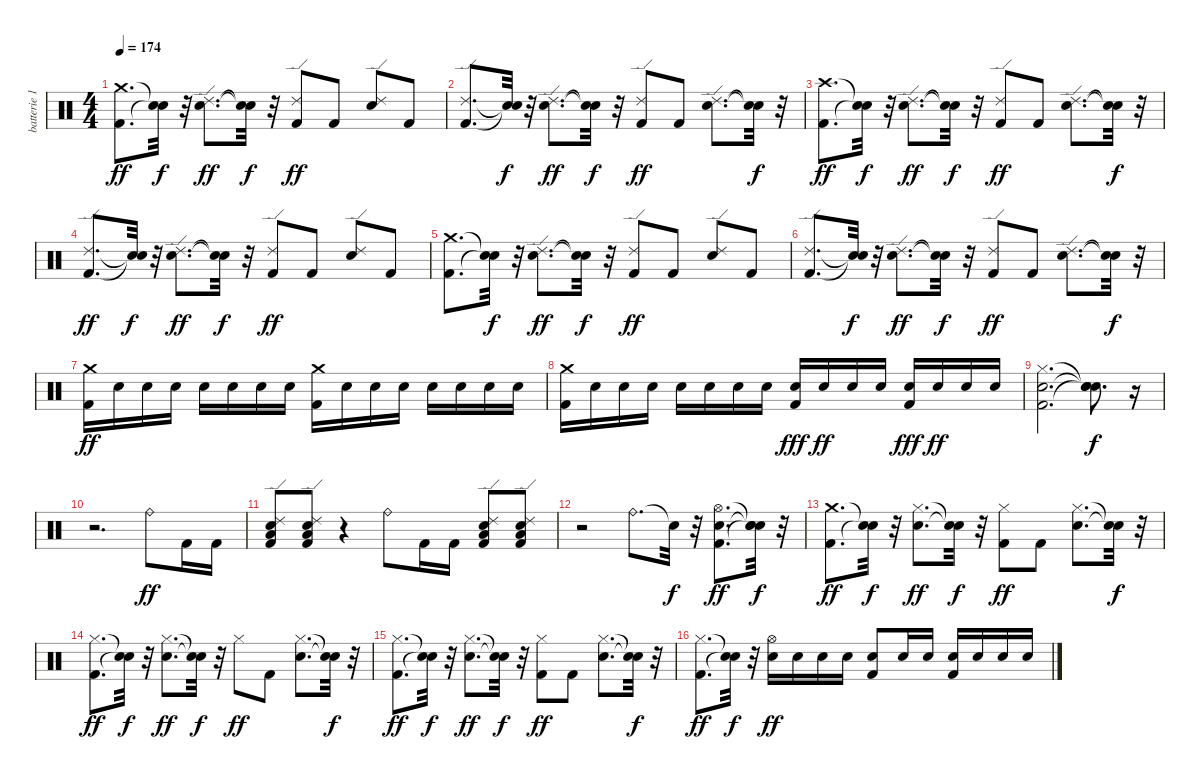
\track ("batterie 1" "batterie 1") {instrument percussion}
\staff {score}
\articulation defaults
\ts (4 4)
\tempo 174
\clef neutral
\ks c
("Kick (hit) 2" "Crash medium (hit)").8{d dy ff} ("Snare (hit)"{t} "Snare (hit)"{t}).32{dy f} r.32 ("Electric Snare (hit)" "Ride (edge) 2").8{d dy ff} ("Snare (hit)"{t} "Snare (hit)"{t}).32{dy f} r.32 ("Kick (hit) 2" "Ride (edge) 2").8{dy ff} "Kick (hit) 2".8 ("Electric Snare (hit)" "Ride (edge) 2").8 "Kick (hit) 2".8 |
("Kick (hit) 2" "Ride (edge) 2").8{d} ("Snare (hit)"{t} "Snare (hit)"{t}).32{dy f} r.32 ("Electric Snare (hit)" "Ride (edge) 2").8{d dy ff} ("Snare (hit)"{t} "Snare (hit)"{t}).32{dy f} r.32 ("Kick (hit) 2" "Ride (edge) 2").8{dy ff} "Kick (hit) 2".8 ("Electric Snare (hit)" "Ride (edge) 2").8{d} ("Snare (hit)"{t} "Snare (hit)"{t}).32{dy f} r.32 |
("Kick (hit) 2" "Crash high (hit)").8{d dy ff} ("Snare (hit)"{t} "Snare (hit)"{t}).32{dy f} r.32 ("Electric Snare (hit)" "Ride (edge) 2").8{d dy ff} ("Snare (hit)"{t} "Snare (hit)"{t}).32{dy f} r.32 ("Kick (hit) 2" "Ride (edge) 2").8{dy ff} "Kick (hit) 2".8 ("Electric Snare (hit)" "Ride (edge) 2").8{d} ("Snare (hit)"{t} "Snare (hit)"{t}).32{dy f} r.32 |
("Kick (hit) 2" "Ride (edge) 2").8{d dy ff} ("Snare (hit)"{t} "Snare (hit)"{t}).32{dy f} r.32 ("Electric Snare (hit)" "Ride (edge) 2").8{d dy ff} ("Snare (hit)"{t} "Snare (hit)"{t}).32{dy f} r.32 ("Kick (hit) 2" "Ride (edge) 2").8{dy ff} "Kick (hit) 2".8 ("Electric Snare (hit)" "Ride (edge) 2").8 "Kick (hit) 2".8 |
("Kick (hit) 2" "Crash medium (hit)").8{d} ("Snare (hit)"{t} "Snare (hit)"{t}).32{dy f} r.32 ("Electric Snare (hit)" "Ride (edge) 2").8{d dy ff} ("Snare (hit)"{t} "Snare (hit)"{t}).32{dy f} r.32 ("Kick (hit) 2" "Ride (edge) 2").8{dy ff} "Kick (hit) 2".8 ("Electric Snare (hit)" "Ride (edge) 2").8 "Kick (hit) 2".8 |
("Kick (hit) 2" "Ride (edge) 2").8{d} ("Snare (hit)"{t} "Snare (hit)"{t}).32{dy f} r.32 ("Electric Snare (hit)" "Ride (edge) 2").8{d dy ff} ("Snare (hit)"{t} "Snare (hit)"{t}).32{dy f} r.32 ("Kick (hit) 2" "Ride (edge) 2").8{dy ff} "Kick (hit) 2".8 ("Electric Snare (hit)" "Ride (edge) 2").8{d} ("Snare (hit)"{t} "Snare (hit)"{t}).32{dy f} r.32 |
("Kick (hit) 2" "Crash medium (hit)").16{dy ff} "Electric Snare (hit)".16 "Electric Snare (hit)".16 "Electric Snare (hit)".16 "Electric Snare (hit)".16 "Electric Snare (hit)".16 "Electric Snare (hit)".16 "Electric Snare (hit)".16 ("Kick (hit) 2" "Crash medium (hit)").16 "Electric Snare (hit)".16 "Electric Snare (hit)".16 "Electric Snare (hit)".16 "Electric Snare (hit)".16 "Electric Snare (hit)".16 "Electric Snare (hit)".16 "Electric Snare (hit)".16 |
("Kick (hit) 2" "Crash medium (hit)").16 "Electric Snare (hit)".16 "Electric Snare (hit)".16 "Electric Snare (hit)".16 "Electric Snare (hit)".16 "Electric Snare (hit)".16 "Electric Snare (hit)".16 "Electric Snare (hit)".16 ("Kick (hit) 2" "Electric Snare (hit)").16{dy fff} "Electric Snare (hit)".16{dy ff} "Electric Snare (hit)".16 "Electric Snare (hit)".16 ("Kick (hit) 2" "Electric Snare (hit)").16{dy fff} "Electric Snare (hit)".16{dy ff} "Electric Snare (hit)".16 "Electric Snare (hit)".16 |
("Kick (hit) 2" "Electric Snare (hit)" "Hi-Hat (closed)").2{d} ("Snare (hit)"{t} "Snare (hit)"{t} "Snare (hit)"{t}).8{d dy f} r.16 |
r.2{d} "Ride (bell)".8{dy ff} "Kick (hit) 2".16 "Kick (hit) 2".16 |
("Kick (hit) 2" "Electric Snare (hit)" "Low Floor Tom (hit)" "Ride (edge) 2").8 ("Kick (hit) 2" "Electric Snare (hit)" "Low Floor Tom (hit)" "Ride (edge) 2").8 r.4 "Ride (bell)".8 "Kick (hit) 2".16 "Kick (hit) 2".16 ("Kick (hit) 2" "Electric Snare (hit)" "Low Floor Tom (hit)" "Ride (edge) 2").8 ("Kick (hit) 2" "Electric Snare (hit)" "Low Floor Tom (hit)" "Ride (edge) 2").8 |
r.2 "Ride (bell)".8{d} "Snare (hit)"{t}.32{dy f} r.32 ("Kick (hit) 2" "Electric Snare (hit)" "Hi-Hat (open)").8{d dy ff} ("Snare (hit)"{t} "Snare (hit)"{t} "Snare (hit)"{t}).32{dy f} r.32 |
("Kick (hit) 2" "Crash medium (hit)").8{d dy ff} ("Snare (hit)"{t} "Snare (hit)"{t}).32{dy f} r.32 ("Electric Snare (hit)" "Hi-Hat (closed)").8{d dy ff} ("Snare (hit)"{t} "Snare (hit)"{t}).32{dy f} r.32 ("Kick (hit) 2" "Hi-Hat (closed)").8{dy ff} "Kick (hit) 2".8 ("Electric Snare (hit)" "Hi-Hat (closed)").8{d} ("Snare (hit)"{t} "Snare (hit)"{t}).32{dy f} r.32 |
("Kick (hit) 2" "Hi-Hat (closed)").8{d dy ff} ("Snare (hit)"{t} "Snare (hit)"{t}).32{dy f} r.32 ("Electric Snare (hit)" "Hi-Hat (closed)").8{d dy ff} ("Snare (hit)"{t} "Snare (hit)"{t}).32{dy f} r.32 "Hi-Hat (closed)".8{dy ff} "Kick (hit) 2".8 ("Electric Snare (hit)" "Hi-Hat (closed)").8{d} ("Snare (hit)"{t} "Snare (hit)"{t}).32{dy f} r.32 |
("Kick (hit) 2" "Hi-Hat (closed)").8{d dy ff} ("Snare (hit)"{t} "Snare (hit)"{t}).32{dy f} r.32 ("Electric Snare (hit)" "Hi-Hat (closed)").8{d dy ff} ("Snare (hit)"{t} "Snare (hit)"{t}).32{dy f} r.32 ("Kick (hit) 2" "Hi-Hat (closed)").8{dy ff} "Kick (hit) 2".8 ("Electric Snare (hit)" "Hi-Hat (closed)").8{d} ("Snare (hit)"{t} "Snare (hit)"{t}).32{dy f} r.32 |
("Kick (hit) 2" "Hi-Hat (closed)").8{d dy ff} ("Snare (hit)"{t} "Snare (hit)"{t}).32{dy f} r.32 ("Electric Snare (hit)" "Hi-Hat (open)").16{dy ff} "Electric Snare (hit)".16 "Electric Snare (hit)".16 "Electric Snare (hit)".16 ("Kick (hit) 2" "Electric Snare (hit)").8 "Electric Snare (hit)".16 "Electric Snare (hit)".16 ("Kick (hit) 2" "Electric Snare (hit)").16 "Electric Snare (hit)".16 "Electric Snare (hit)".16 "Electric Snare (hit)".16
